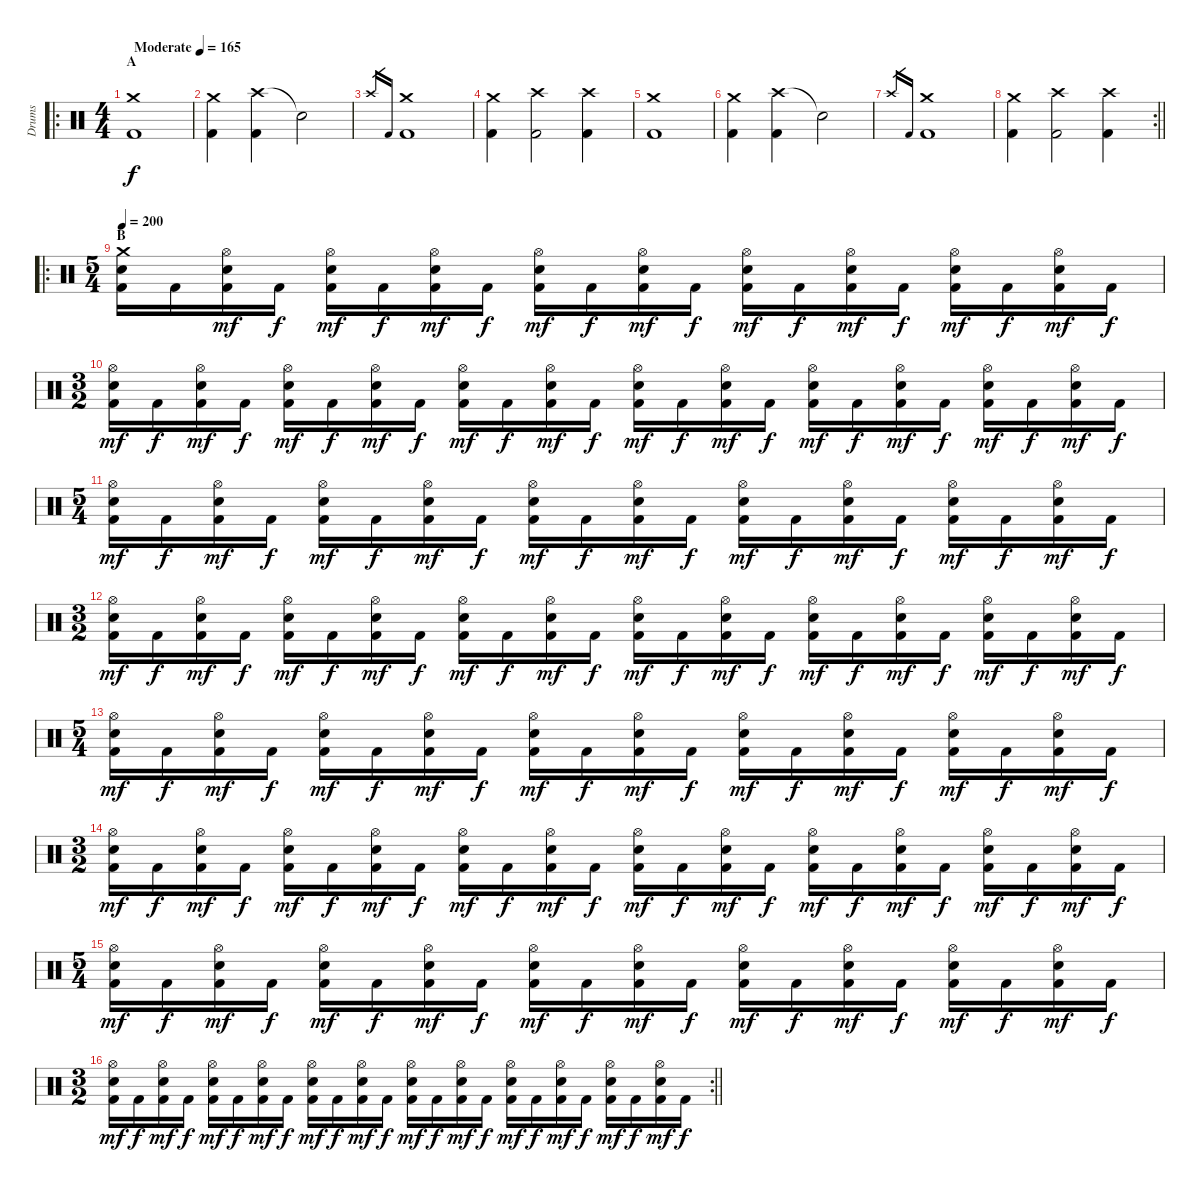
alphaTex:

\track ("Drums" "Drums") {instrument percussion}
\staff {score}
\articulation defaults
\ro
\ts (4 4)
\section ("" "A")
\tempo (165 "Moderate")
\clef neutral
\ks c
("Crash medium (hit)" "Kick (hit) 2").1{dy f} |
("Crash medium (hit)" "Kick (hit) 2").4 ("Crash high (hit)" "Kick (hit) 2").4 "Snare (hit)"{t}.2 |
"Crash high (hit)".16{gr} "Kick (hit) 2".16{gr} ("Crash medium (hit)" "Kick (hit) 2").1 |
("Crash medium (hit)" "Kick (hit) 2").4 ("Crash high (hit)" "Kick (hit) 2").2 ("Crash high (hit)" "Kick (hit) 2").4 |
("Crash medium (hit)" "Kick (hit) 2").1 |
("Crash medium (hit)" "Kick (hit) 2").4 ("Crash high (hit)" "Kick (hit) 2").4 "Snare (hit)"{t}.2 |
"Crash high (hit)".16{gr} "Kick (hit) 2".16{gr} ("Crash medium (hit)" "Kick (hit) 2").1 |
\rc 2
\barLineRight lightlight
("Crash medium (hit)" "Kick (hit) 2").4 ("Crash high (hit)" "Kick (hit) 2").2 ("Crash high (hit)" "Kick (hit) 2").4 |
\ro
\ts (5 4)
\section ("" "B")
\tempo 200
("Crash medium (hit)" "Electric Snare (hit)" "Kick (hit) 2").16 "Kick (hit) 2".16 ("Hi-Hat (open)" "Electric Snare (hit)" "Kick (hit) 2").16{dy mf} "Kick (hit) 2".16{dy f} ("Hi-Hat (open)" "Electric Snare (hit)" "Kick (hit) 2").16{dy mf} "Kick (hit) 2".16{dy f} ("Hi-Hat (open)" "Electric Snare (hit)" "Kick (hit) 2").16{dy mf} "Kick (hit) 2".16{dy f} ("Hi-Hat (open)" "Electric Snare (hit)" "Kick (hit) 2").16{dy mf} "Kick (hit) 2".16{dy f} ("Hi-Hat (open)" "Electric Snare (hit)" "Kick (hit) 2").16{dy mf} "Kick (hit) 2".16{dy f} ("Hi-Hat (open)" "Electric Snare (hit)" "Kick (hit) 2").16{dy mf} "Kick (hit) 2".16{dy f} ("Hi-Hat (open)" "Electric Snare (hit)" "Kick (hit) 2").16{dy mf} "Kick (hit) 2".16{dy f} ("Hi-Hat (open)" "Electric Snare (hit)" "Kick (hit) 2").16{dy mf} "Kick (hit) 2".16{dy f} ("Hi-Hat (open)" "Electric Snare (hit)" "Kick (hit) 2").16{dy mf} "Kick (hit) 2".16{dy f} |
\ts (3 2)
("Hi-Hat (open)" "Electric Snare (hit)" "Kick (hit) 2").16{dy mf} "Kick (hit) 2".16{dy f} ("Hi-Hat (open)" "Electric Snare (hit)" "Kick (hit) 2").16{dy mf} "Kick (hit) 2".16{dy f} ("Hi-Hat (open)" "Electric Snare (hit)" "Kick (hit) 2").16{dy mf} "Kick (hit) 2".16{dy f} ("Hi-Hat (open)" "Electric Snare (hit)" "Kick (hit) 2").16{dy mf} "Kick (hit) 2".16{dy f} ("Hi-Hat (open)" "Electric Snare (hit)" "Kick (hit) 2").16{dy mf} "Kick (hit) 2".16{dy f} ("Hi-Hat (open)" "Electric Snare (hit)" "Kick (hit) 2").16{dy mf} "Kick (hit) 2".16{dy f} ("Hi-Hat (open)" "Electric Snare (hit)" "Kick (hit) 2").16{dy mf} "Kick (hit) 2".16{dy f} ("Hi-Hat (open)" "Electric Snare (hit)" "Kick (hit) 2").16{dy mf} "Kick (hit) 2".16{dy f} ("Hi-Hat (open)" "Electric Snare (hit)" "Kick (hit) 2").16{dy mf} "Kick (hit) 2".16{dy f} ("Hi-Hat (open)" "Electric Snare (hit)" "Kick (hit) 2").16{dy mf} "Kick (hit) 2".16{dy f} ("Hi-Hat (open)" "Electric Snare (hit)" "Kick (hit) 2").16{dy mf} "Kick (hit) 2".16{dy f} ("Hi-Hat (open)" "Electric Snare (hit)" "Kick (hit) 2").16{dy mf} "Kick (hit) 2".16{dy f} |
\ts (5 4)
("Hi-Hat (open)" "Electric Snare (hit)" "Kick (hit) 2").16{dy mf} "Kick (hit) 2".16{dy f} ("Hi-Hat (open)" "Electric Snare (hit)" "Kick (hit) 2").16{dy mf} "Kick (hit) 2".16{dy f} ("Hi-Hat (open)" "Electric Snare (hit)" "Kick (hit) 2").16{dy mf} "Kick (hit) 2".16{dy f} ("Hi-Hat (open)" "Electric Snare (hit)" "Kick (hit) 2").16{dy mf} "Kick (hit) 2".16{dy f} ("Hi-Hat (open)" "Electric Snare (hit)" "Kick (hit) 2").16{dy mf} "Kick (hit) 2".16{dy f} ("Hi-Hat (open)" "Electric Snare (hit)" "Kick (hit) 2").16{dy mf} "Kick (hit) 2".16{dy f} ("Hi-Hat (open)" "Electric Snare (hit)" "Kick (hit) 2").16{dy mf} "Kick (hit) 2".16{dy f} ("Hi-Hat (open)" "Electric Snare (hit)" "Kick (hit) 2").16{dy mf} "Kick (hit) 2".16{dy f} ("Hi-Hat (open)" "Electric Snare (hit)" "Kick (hit) 2").16{dy mf} "Kick (hit) 2".16{dy f} ("Hi-Hat (open)" "Electric Snare (hit)" "Kick (hit) 2").16{dy mf} "Kick (hit) 2".16{dy f} |
\ts (3 2)
("Hi-Hat (open)" "Electric Snare (hit)" "Kick (hit) 2").16{dy mf} "Kick (hit) 2".16{dy f} ("Hi-Hat (open)" "Electric Snare (hit)" "Kick (hit) 2").16{dy mf} "Kick (hit) 2".16{dy f} ("Hi-Hat (open)" "Electric Snare (hit)" "Kick (hit) 2").16{dy mf} "Kick (hit) 2".16{dy f} ("Hi-Hat (open)" "Electric Snare (hit)" "Kick (hit) 2").16{dy mf} "Kick (hit) 2".16{dy f} ("Hi-Hat (open)" "Electric Snare (hit)" "Kick (hit) 2").16{dy mf} "Kick (hit) 2".16{dy f} ("Hi-Hat (open)" "Electric Snare (hit)" "Kick (hit) 2").16{dy mf} "Kick (hit) 2".16{dy f} ("Hi-Hat (open)" "Electric Snare (hit)" "Kick (hit) 2").16{dy mf} "Kick (hit) 2".16{dy f} ("Hi-Hat (open)" "Electric Snare (hit)" "Kick (hit) 2").16{dy mf} "Kick (hit) 2".16{dy f} ("Hi-Hat (open)" "Electric Snare (hit)" "Kick (hit) 2").16{dy mf} "Kick (hit) 2".16{dy f} ("Hi-Hat (open)" "Electric Snare (hit)" "Kick (hit) 2").16{dy mf} "Kick (hit) 2".16{dy f} ("Hi-Hat (open)" "Electric Snare (hit)" "Kick (hit) 2").16{dy mf} "Kick (hit) 2".16{dy f} ("Hi-Hat (open)" "Electric Snare (hit)" "Kick (hit) 2").16{dy mf} "Kick (hit) 2".16{dy f} |
\ts (5 4)
("Hi-Hat (open)" "Electric Snare (hit)" "Kick (hit) 2").16{dy mf} "Kick (hit) 2".16{dy f} ("Hi-Hat (open)" "Electric Snare (hit)" "Kick (hit) 2").16{dy mf} "Kick (hit) 2".16{dy f} ("Hi-Hat (open)" "Electric Snare (hit)" "Kick (hit) 2").16{dy mf} "Kick (hit) 2".16{dy f} ("Hi-Hat (open)" "Electric Snare (hit)" "Kick (hit) 2").16{dy mf} "Kick (hit) 2".16{dy f} ("Hi-Hat (open)" "Electric Snare (hit)" "Kick (hit) 2").16{dy mf} "Kick (hit) 2".16{dy f} ("Hi-Hat (open)" "Electric Snare (hit)" "Kick (hit) 2").16{dy mf} "Kick (hit) 2".16{dy f} ("Hi-Hat (open)" "Electric Snare (hit)" "Kick (hit) 2").16{dy mf} "Kick (hit) 2".16{dy f} ("Hi-Hat (open)" "Electric Snare (hit)" "Kick (hit) 2").16{dy mf} "Kick (hit) 2".16{dy f} ("Hi-Hat (open)" "Electric Snare (hit)" "Kick (hit) 2").16{dy mf} "Kick (hit) 2".16{dy f} ("Hi-Hat (open)" "Electric Snare (hit)" "Kick (hit) 2").16{dy mf} "Kick (hit) 2".16{dy f} |
\ts (3 2)
("Hi-Hat (open)" "Electric Snare (hit)" "Kick (hit) 2").16{dy mf} "Kick (hit) 2".16{dy f} ("Hi-Hat (open)" "Electric Snare (hit)" "Kick (hit) 2").16{dy mf} "Kick (hit) 2".16{dy f} ("Hi-Hat (open)" "Electric Snare (hit)" "Kick (hit) 2").16{dy mf} "Kick (hit) 2".16{dy f} ("Hi-Hat (open)" "Electric Snare (hit)" "Kick (hit) 2").16{dy mf} "Kick (hit) 2".16{dy f} ("Hi-Hat (open)" "Electric Snare (hit)" "Kick (hit) 2").16{dy mf} "Kick (hit) 2".16{dy f} ("Hi-Hat (open)" "Electric Snare (hit)" "Kick (hit) 2").16{dy mf} "Kick (hit) 2".16{dy f} ("Hi-Hat (open)" "Electric Snare (hit)" "Kick (hit) 2").16{dy mf} "Kick (hit) 2".16{dy f} ("Hi-Hat (open)" "Electric Snare (hit)" "Kick (hit) 2").16{dy mf} "Kick (hit) 2".16{dy f} ("Hi-Hat (open)" "Electric Snare (hit)" "Kick (hit) 2").16{dy mf} "Kick (hit) 2".16{dy f} ("Hi-Hat (open)" "Electric Snare (hit)" "Kick (hit) 2").16{dy mf} "Kick (hit) 2".16{dy f} ("Hi-Hat (open)" "Electric Snare (hit)" "Kick (hit) 2").16{dy mf} "Kick (hit) 2".16{dy f} ("Hi-Hat (open)" "Electric Snare (hit)" "Kick (hit) 2").16{dy mf} "Kick (hit) 2".16{dy f} |
\ts (5 4)
("Hi-Hat (open)" "Electric Snare (hit)" "Kick (hit) 2").16{dy mf} "Kick (hit) 2".16{dy f} ("Hi-Hat (open)" "Electric Snare (hit)" "Kick (hit) 2").16{dy mf} "Kick (hit) 2".16{dy f} ("Hi-Hat (open)" "Electric Snare (hit)" "Kick (hit) 2").16{dy mf} "Kick (hit) 2".16{dy f} ("Hi-Hat (open)" "Electric Snare (hit)" "Kick (hit) 2").16{dy mf} "Kick (hit) 2".16{dy f} ("Hi-Hat (open)" "Electric Snare (hit)" "Kick (hit) 2").16{dy mf} "Kick (hit) 2".16{dy f} ("Hi-Hat (open)" "Electric Snare (hit)" "Kick (hit) 2").16{dy mf} "Kick (hit) 2".16{dy f} ("Hi-Hat (open)" "Electric Snare (hit)" "Kick (hit) 2").16{dy mf} "Kick (hit) 2".16{dy f} ("Hi-Hat (open)" "Electric Snare (hit)" "Kick (hit) 2").16{dy mf} "Kick (hit) 2".16{dy f} ("Hi-Hat (open)" "Electric Snare (hit)" "Kick (hit) 2").16{dy mf} "Kick (hit) 2".16{dy f} ("Hi-Hat (open)" "Electric Snare (hit)" "Kick (hit) 2").16{dy mf} "Kick (hit) 2".16{dy f} |
\rc 2
\ts (3 2)
\barLineRight lightlight
("Hi-Hat (open)" "Electric Snare (hit)" "Kick (hit) 2").16{dy mf} "Kick (hit) 2".16{dy f} ("Hi-Hat (open)" "Electric Snare (hit)" "Kick (hit) 2").16{dy mf} "Kick (hit) 2".16{dy f} ("Hi-Hat (open)" "Electric Snare (hit)" "Kick (hit) 2").16{dy mf} "Kick (hit) 2".16{dy f} ("Hi-Hat (open)" "Electric Snare (hit)" "Kick (hit) 2").16{dy mf} "Kick (hit) 2".16{dy f} ("Hi-Hat (open)" "Electric Snare (hit)" "Kick (hit) 2").16{dy mf} "Kick (hit) 2".16{dy f} ("Hi-Hat (open)" "Electric Snare (hit)" "Kick (hit) 2").16{dy mf} "Kick (hit) 2".16{dy f} ("Hi-Hat (open)" "Electric Snare (hit)" "Kick (hit) 2").16{dy mf} "Kick (hit) 2".16{dy f} ("Hi-Hat (open)" "Electric Snare (hit)" "Kick (hit) 2").16{dy mf} "Kick (hit) 2".16{dy f} ("Hi-Hat (open)" "Electric Snare (hit)" "Kick (hit) 2").16{dy mf} "Kick (hit) 2".16{dy f} ("Hi-Hat (open)" "Electric Snare (hit)" "Kick (hit) 2").16{dy mf} "Kick (hit) 2".16{dy f} ("Hi-Hat (open)" "Electric Snare (hit)" "Kick (hit) 2").16{dy mf} "Kick (hit) 2".16{dy f} ("Hi-Hat (open)" "Electric Snare (hit)" "Kick (hit) 2").16{dy mf} "Kick (hit) 2".16{dy f}
